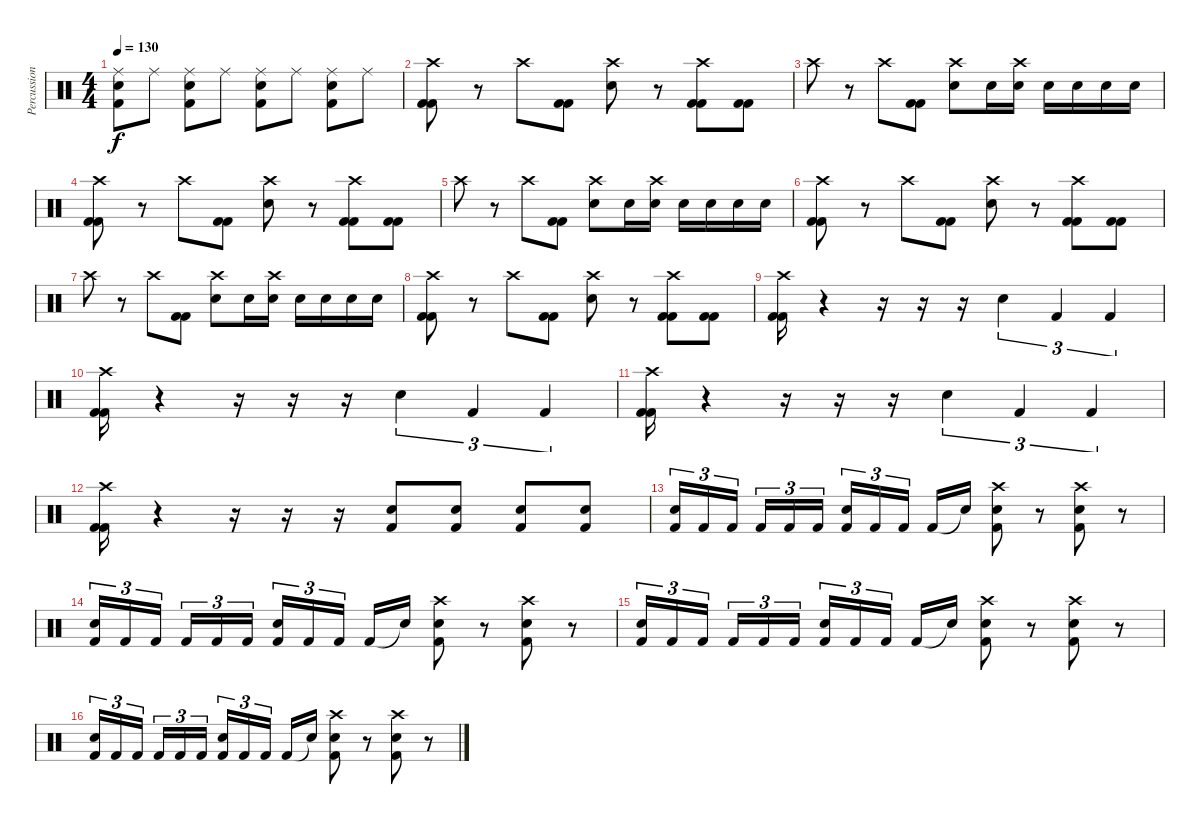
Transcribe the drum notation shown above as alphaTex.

\track ("Percussion" "Percussion") {instrument percussion}
\staff {score}
\articulation defaults
\ts (4 4)
\tempo 130
\clef neutral
\ks c
("Ride (middle)" "Electric Snare (hit)" "Kick (hit) 2").8{dy f} "Ride (middle)".8 ("Ride (middle)" "Electric Snare (hit)" "Kick (hit) 2").8 "Ride (middle)".8 ("Ride (middle)" "Electric Snare (hit)" "Kick (hit) 2").8 "Ride (middle)".8 ("Ride (middle)" "Electric Snare (hit)" "Kick (hit) 2").8 "Ride (middle)".8 |
("Crash high (hit)" "Kick (hit) 2" "Kick (hit) 2").8 r.8 "Crash high (hit)".8 ("Kick (hit) 2" "Kick (hit) 2").8 ("Crash high (hit)" "Electric Snare (hit)").8 r.8 ("Crash high (hit)" "Kick (hit) 2" "Kick (hit) 2").8 ("Kick (hit) 2" "Kick (hit) 2").8 |
"Crash high (hit)".8 r.8 "Crash high (hit)".8 ("Kick (hit) 2" "Kick (hit) 2").8 ("Crash high (hit)" "Electric Snare (hit)").8 "Electric Snare (hit)".16 ("Crash high (hit)" "Electric Snare (hit)").16 "Electric Snare (hit)".16 "Electric Snare (hit)".16 "Electric Snare (hit)".16 "Electric Snare (hit)".16 |
("Crash high (hit)" "Kick (hit) 2" "Kick (hit) 2").8 r.8 "Crash high (hit)".8 ("Kick (hit) 2" "Kick (hit) 2").8 ("Crash high (hit)" "Electric Snare (hit)").8 r.8 ("Crash high (hit)" "Kick (hit) 2" "Kick (hit) 2").8 ("Kick (hit) 2" "Kick (hit) 2").8 |
"Crash high (hit)".8 r.8 "Crash high (hit)".8 ("Kick (hit) 2" "Kick (hit) 2").8 ("Crash high (hit)" "Electric Snare (hit)").8 "Electric Snare (hit)".16 ("Crash high (hit)" "Electric Snare (hit)").16 "Electric Snare (hit)".16 "Electric Snare (hit)".16 "Electric Snare (hit)".16 "Electric Snare (hit)".16 |
("Crash high (hit)" "Kick (hit) 2" "Kick (hit) 2").8 r.8 "Crash high (hit)".8 ("Kick (hit) 2" "Kick (hit) 2").8 ("Crash high (hit)" "Electric Snare (hit)").8 r.8 ("Crash high (hit)" "Kick (hit) 2" "Kick (hit) 2").8 ("Kick (hit) 2" "Kick (hit) 2").8 |
"Crash high (hit)".8 r.8 "Crash high (hit)".8 ("Kick (hit) 2" "Kick (hit) 2").8 ("Crash high (hit)" "Electric Snare (hit)").8 "Electric Snare (hit)".16 ("Crash high (hit)" "Electric Snare (hit)").16 "Electric Snare (hit)".16 "Electric Snare (hit)".16 "Electric Snare (hit)".16 "Electric Snare (hit)".16 |
("Crash high (hit)" "Kick (hit) 2" "Kick (hit) 2").8 r.8 "Crash high (hit)".8 ("Kick (hit) 2" "Kick (hit) 2").8 ("Crash high (hit)" "Electric Snare (hit)").8 r.8 ("Crash high (hit)" "Kick (hit) 2" "Kick (hit) 2").8 ("Kick (hit) 2" "Kick (hit) 2").8 |
("Crash high (hit)" "Kick (hit) 2" "Kick (hit) 2").16 r.4 r.16 r.16 r.16 "Electric Snare (hit)".4{tu (3 2)} "Kick (hit) 2".4{tu (3 2)} "Kick (hit) 2".4{tu (3 2)} |
("Crash high (hit)" "Kick (hit) 2" "Kick (hit) 2").16 r.4 r.16 r.16 r.16 "Electric Snare (hit)".4{tu (3 2)} "Kick (hit) 2".4{tu (3 2)} "Kick (hit) 2".4{tu (3 2)} |
("Crash high (hit)" "Kick (hit) 2" "Kick (hit) 2").16 r.4 r.16 r.16 r.16 "Electric Snare (hit)".4{tu (3 2)} "Kick (hit) 2".4{tu (3 2)} "Kick (hit) 2".4{tu (3 2)} |
("Crash high (hit)" "Kick (hit) 2" "Kick (hit) 2").16 r.4 r.16 r.16 r.16 ("Electric Snare (hit)" "Kick (hit) 2").8 ("Electric Snare (hit)" "Kick (hit) 2").8 ("Electric Snare (hit)" "Kick (hit) 2").8 ("Electric Snare (hit)" "Kick (hit) 2").8 |
("Electric Snare (hit)" "Kick (hit) 2").16{tu (3 2)} "Kick (hit) 2".16{tu (3 2)} "Kick (hit) 2".16{tu (3 2)} "Kick (hit) 2".16{tu (3 2)} "Kick (hit) 2".16{tu (3 2)} "Kick (hit) 2".16{tu (3 2)} ("Electric Snare (hit)" "Kick (hit) 2").16{tu (3 2)} "Kick (hit) 2".16{tu (3 2)} "Kick (hit) 2".16{tu (3 2)} "Kick (hit) 2".16 "Snare (hit)"{t}.16 ("Crash high (hit)" "Electric Snare (hit)" "Kick (hit) 2").8 r.8 ("Crash high (hit)" "Electric Snare (hit)" "Kick (hit) 2").8 r.8 |
("Electric Snare (hit)" "Kick (hit) 2").16{tu (3 2)} "Kick (hit) 2".16{tu (3 2)} "Kick (hit) 2".16{tu (3 2)} "Kick (hit) 2".16{tu (3 2)} "Kick (hit) 2".16{tu (3 2)} "Kick (hit) 2".16{tu (3 2)} ("Electric Snare (hit)" "Kick (hit) 2").16{tu (3 2)} "Kick (hit) 2".16{tu (3 2)} "Kick (hit) 2".16{tu (3 2)} "Kick (hit) 2".16 "Snare (hit)"{t}.16 ("Crash high (hit)" "Electric Snare (hit)" "Kick (hit) 2").8 r.8 ("Crash high (hit)" "Electric Snare (hit)" "Kick (hit) 2").8 r.8 |
("Electric Snare (hit)" "Kick (hit) 2").16{tu (3 2)} "Kick (hit) 2".16{tu (3 2)} "Kick (hit) 2".16{tu (3 2)} "Kick (hit) 2".16{tu (3 2)} "Kick (hit) 2".16{tu (3 2)} "Kick (hit) 2".16{tu (3 2)} ("Electric Snare (hit)" "Kick (hit) 2").16{tu (3 2)} "Kick (hit) 2".16{tu (3 2)} "Kick (hit) 2".16{tu (3 2)} "Kick (hit) 2".16 "Snare (hit)"{t}.16 ("Crash high (hit)" "Electric Snare (hit)" "Kick (hit) 2").8 r.8 ("Crash high (hit)" "Electric Snare (hit)" "Kick (hit) 2").8 r.8 |
("Electric Snare (hit)" "Kick (hit) 2").16{tu (3 2)} "Kick (hit) 2".16{tu (3 2)} "Kick (hit) 2".16{tu (3 2)} "Kick (hit) 2".16{tu (3 2)} "Kick (hit) 2".16{tu (3 2)} "Kick (hit) 2".16{tu (3 2)} ("Electric Snare (hit)" "Kick (hit) 2").16{tu (3 2)} "Kick (hit) 2".16{tu (3 2)} "Kick (hit) 2".16{tu (3 2)} "Kick (hit) 2".16 "Snare (hit)"{t}.16 ("Crash high (hit)" "Electric Snare (hit)" "Kick (hit) 2").8 r.8 ("Crash high (hit)" "Electric Snare (hit)" "Kick (hit) 2").8 r.8
